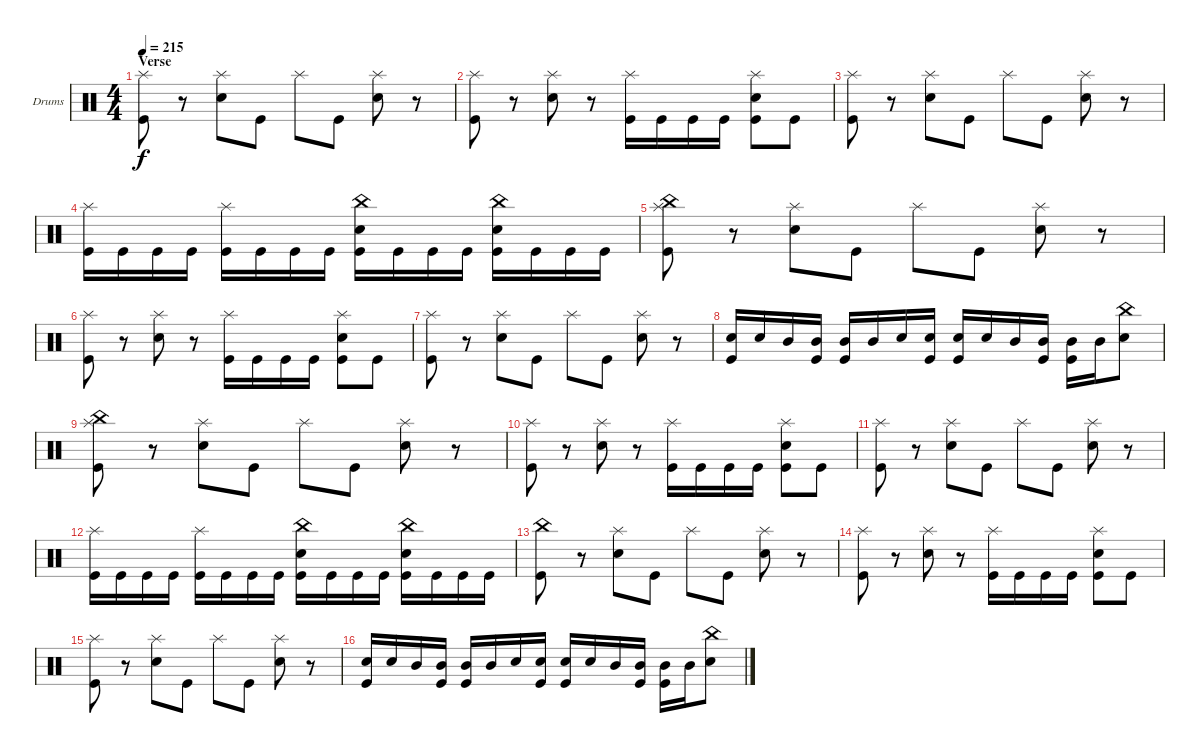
\defaultSystemsLayout 4
\bracketExtendMode groupsimilarinstruments
\firstSystemTrackNameOrientation horizontal
\otherSystemsTrackNameOrientation horizontal
\track ("Drumkit" "Drums") {instrument percussion}
\staff {score}
\articulation defaults
\ts (4 4)
\section ("" "Verse")
\tempo 215
\clef neutral
\ks c
("Splash (hit)" "Kick (hit)").8{dy f} r.8 ("Splash (hit)" "Snare (hit) 2").8 "Kick (hit)".8 "Splash (hit)".8 "Kick (hit)".8 ("Splash (hit)" "Snare (hit) 2").8 r.8 |
("Splash (hit)" "Kick (hit)").8 r.8 ("Splash (hit)" "Snare (hit) 2").8 r.8 ("Kick (hit)" "Splash (hit)").16 "Kick (hit)".16 "Kick (hit)".16 "Kick (hit)".16 ("Splash (hit)" "Kick (hit)" "Snare (hit) 2").8 "Kick (hit)".8 |
("Splash (hit)" "Kick (hit)").8 r.8 ("Splash (hit)" "Snare (hit) 2").8 "Kick (hit)".8 "Splash (hit)".8 "Kick (hit)".8 ("Splash (hit)" "Snare (hit) 2").8 r.8 |
("Kick (hit)" "Splash (hit)").16 "Kick (hit)".16 "Kick (hit)".16 "Kick (hit)".16 ("Kick (hit)" "Splash (hit)").16 "Kick (hit)".16 "Kick (hit)".16 "Kick (hit)".16 ("Kick (hit)" "China (hit)" "Snare (hit) 2").16 "Kick (hit)".16 "Kick (hit)".16 "Kick (hit)".16 ("Kick (hit)" "China (hit)" "Snare (hit) 2").16 "Kick (hit)".16 "Kick (hit)".16 "Kick (hit)".16 |
("Kick (hit)" "China (hit)" "Splash (hit)").8 r.8 ("Splash (hit)" "Snare (hit) 2").8 "Kick (hit)".8 "Splash (hit)".8 "Kick (hit)".8 ("Splash (hit)" "Snare (hit) 2").8 r.8 |
("Splash (hit)" "Kick (hit)").8 r.8 ("Splash (hit)" "Snare (hit) 2").8 r.8 ("Kick (hit)" "Splash (hit)").16 "Kick (hit)".16 "Kick (hit)".16 "Kick (hit)".16 ("Splash (hit)" "Kick (hit)" "Snare (hit) 2").8 "Kick (hit)".8 |
("Splash (hit)" "Kick (hit)").8 r.8 ("Splash (hit)" "Snare (hit) 2").8 "Kick (hit)".8 "Splash (hit)".8 "Kick (hit)".8 ("Splash (hit)" "Snare (hit) 2").8 r.8 |
("Kick (hit)" "Snare (hit) 2").16 "Snare (hit) 2".16 "Mid Tom (hit)".16 ("Kick (hit)" "Mid Tom (hit)").16 ("Kick (hit)" "Mid Tom (hit)").16 "Mid Tom (hit)".16 "Snare (hit) 2".16 ("Kick (hit)" "Snare (hit) 2").16 ("Kick (hit)" "Snare (hit) 2").16 "Snare (hit) 2".16 "Mid Tom (hit)".16 ("Kick (hit)" "Mid Tom (hit)").16 ("Kick (hit)" "Mid Tom (hit)").16 "Mid Tom (hit)".16 ("Snare (hit) 2" "China (hit)").8 |
("Kick (hit)" "China (hit)" "Splash (hit)").8 r.8 ("Splash (hit)" "Snare (hit) 2").8 "Kick (hit)".8 "Splash (hit)".8 "Kick (hit)".8 ("Splash (hit)" "Snare (hit) 2").8 r.8 |
("Splash (hit)" "Kick (hit)").8 r.8 ("Splash (hit)" "Snare (hit) 2").8 r.8 ("Kick (hit)" "Splash (hit)").16 "Kick (hit)".16 "Kick (hit)".16 "Kick (hit)".16 ("Splash (hit)" "Kick (hit)" "Snare (hit) 2").8 "Kick (hit)".8 |
("Splash (hit)" "Kick (hit)").8 r.8 ("Splash (hit)" "Snare (hit) 2").8 "Kick (hit)".8 "Splash (hit)".8 "Kick (hit)".8 ("Splash (hit)" "Snare (hit) 2").8 r.8 |
("Kick (hit)" "Splash (hit)").16 "Kick (hit)".16 "Kick (hit)".16 "Kick (hit)".16 ("Kick (hit)" "Splash (hit)").16 "Kick (hit)".16 "Kick (hit)".16 "Kick (hit)".16 ("Kick (hit)" "China (hit)" "Snare (hit) 2").16 "Kick (hit)".16 "Kick (hit)".16 "Kick (hit)".16 ("Kick (hit)" "China (hit)" "Snare (hit) 2").16 "Kick (hit)".16 "Kick (hit)".16 "Kick (hit)".16 |
("Kick (hit)" "China (hit)").8 r.8 ("Splash (hit)" "Snare (hit) 2").8 "Kick (hit)".8 "Splash (hit)".8 "Kick (hit)".8 ("Splash (hit)" "Snare (hit) 2").8 r.8 |
("Splash (hit)" "Kick (hit)").8 r.8 ("Splash (hit)" "Snare (hit) 2").8 r.8 ("Kick (hit)" "Splash (hit)").16 "Kick (hit)".16 "Kick (hit)".16 "Kick (hit)".16 ("Splash (hit)" "Kick (hit)" "Snare (hit) 2").8 "Kick (hit)".8 |
("Splash (hit)" "Kick (hit)").8 r.8 ("Splash (hit)" "Snare (hit) 2").8 "Kick (hit)".8 "Splash (hit)".8 "Kick (hit)".8 ("Splash (hit)" "Snare (hit) 2").8 r.8 |
("Kick (hit)" "Snare (hit) 2").16 "Snare (hit) 2".16 "Mid Tom (hit)".16 ("Kick (hit)" "Mid Tom (hit)").16 ("Kick (hit)" "Mid Tom (hit)").16 "Mid Tom (hit)".16 "Snare (hit) 2".16 ("Kick (hit)" "Snare (hit) 2").16 ("Kick (hit)" "Snare (hit) 2").16 "Snare (hit) 2".16 "Mid Tom (hit)".16 ("Kick (hit)" "Mid Tom (hit)").16 ("Kick (hit)" "Mid Tom (hit)").16 "Mid Tom (hit)".16 ("Snare (hit) 2" "China (hit)").8
